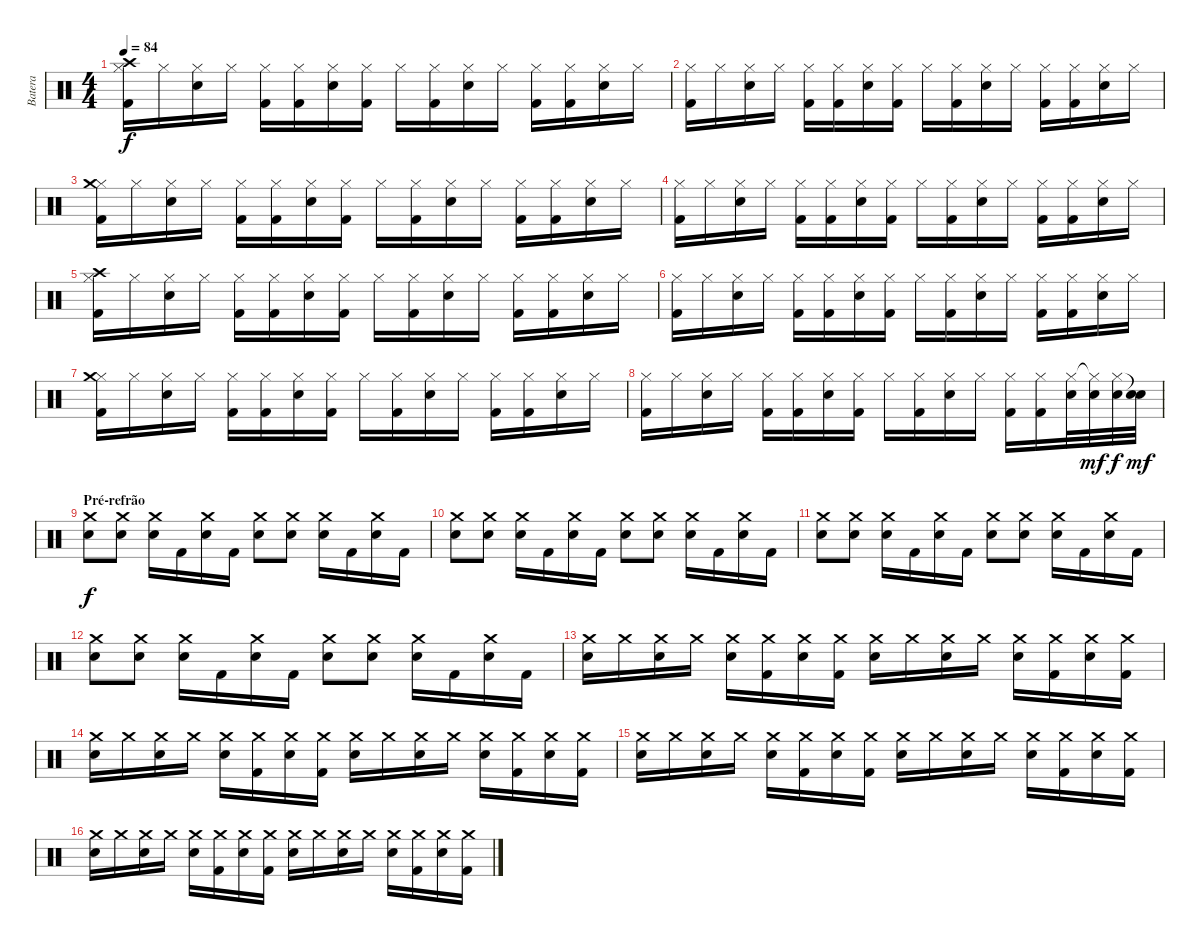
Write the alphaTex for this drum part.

\track ("Batera" "Batera") {instrument percussion}
\staff {score}
\articulation defaults
\ts (4 4)
\tempo 84
\clef neutral
\ks c
("Hi-Hat (closed)" "Crash high (hit)" "Kick (hit) 2").16{dy f} "Hi-Hat (closed)".16 ("Hi-Hat (closed)" "Snare (hit) 2").16 "Hi-Hat (closed)".16 ("Hi-Hat (closed)" "Kick (hit) 2").16 ("Hi-Hat (closed)" "Kick (hit) 2").16 ("Hi-Hat (closed)" "Snare (hit) 2").16 ("Hi-Hat (closed)" "Kick (hit) 2").16 "Hi-Hat (closed)".16 ("Hi-Hat (closed)" "Kick (hit) 2").16 ("Hi-Hat (closed)" "Snare (hit) 2").16 "Hi-Hat (closed)".16 ("Hi-Hat (closed)" "Kick (hit) 2").16 ("Hi-Hat (closed)" "Kick (hit) 2").16 ("Hi-Hat (closed)" "Snare (hit) 2").16 "Hi-Hat (closed)".16 |
("Hi-Hat (closed)" "Kick (hit) 2").16 "Hi-Hat (closed)".16 ("Hi-Hat (closed)" "Snare (hit) 2").16 "Hi-Hat (closed)".16 ("Hi-Hat (closed)" "Kick (hit) 2").16 ("Hi-Hat (closed)" "Kick (hit) 2").16 ("Hi-Hat (closed)" "Snare (hit) 2").16 ("Hi-Hat (closed)" "Kick (hit) 2").16 "Hi-Hat (closed)".16 ("Hi-Hat (closed)" "Kick (hit) 2").16 ("Hi-Hat (closed)" "Snare (hit) 2").16 "Hi-Hat (closed)".16 ("Hi-Hat (closed)" "Kick (hit) 2").16 ("Hi-Hat (closed)" "Kick (hit) 2").16 ("Hi-Hat (closed)" "Snare (hit) 2").16 "Hi-Hat (closed)".16 |
("Hi-Hat (closed)" "Crash medium (hit)" "Kick (hit) 2").16 "Hi-Hat (closed)".16 ("Hi-Hat (closed)" "Snare (hit) 2").16 "Hi-Hat (closed)".16 ("Hi-Hat (closed)" "Kick (hit) 2").16 ("Hi-Hat (closed)" "Kick (hit) 2").16 ("Hi-Hat (closed)" "Snare (hit) 2").16 ("Hi-Hat (closed)" "Kick (hit) 2").16 "Hi-Hat (closed)".16 ("Hi-Hat (closed)" "Kick (hit) 2").16 ("Hi-Hat (closed)" "Snare (hit) 2").16 "Hi-Hat (closed)".16 ("Hi-Hat (closed)" "Kick (hit) 2").16 ("Hi-Hat (closed)" "Kick (hit) 2").16 ("Hi-Hat (closed)" "Snare (hit) 2").16 "Hi-Hat (closed)".16 |
("Hi-Hat (closed)" "Kick (hit) 2").16 "Hi-Hat (closed)".16 ("Hi-Hat (closed)" "Snare (hit) 2").16 "Hi-Hat (closed)".16 ("Hi-Hat (closed)" "Kick (hit) 2").16 ("Hi-Hat (closed)" "Kick (hit) 2").16 ("Hi-Hat (closed)" "Snare (hit) 2").16 ("Hi-Hat (closed)" "Kick (hit) 2").16 "Hi-Hat (closed)".16 ("Hi-Hat (closed)" "Kick (hit) 2").16 ("Hi-Hat (closed)" "Snare (hit) 2").16 "Hi-Hat (closed)".16 ("Hi-Hat (closed)" "Kick (hit) 2").16 ("Hi-Hat (closed)" "Kick (hit) 2").16 ("Hi-Hat (closed)" "Snare (hit) 2").16 "Hi-Hat (closed)".16 |
("Hi-Hat (closed)" "Crash high (hit)" "Kick (hit) 2").16 "Hi-Hat (closed)".16 ("Hi-Hat (closed)" "Snare (hit) 2").16 "Hi-Hat (closed)".16 ("Hi-Hat (closed)" "Kick (hit) 2").16 ("Hi-Hat (closed)" "Kick (hit) 2").16 ("Hi-Hat (closed)" "Snare (hit) 2").16 ("Hi-Hat (closed)" "Kick (hit) 2").16 "Hi-Hat (closed)".16 ("Hi-Hat (closed)" "Kick (hit) 2").16 ("Hi-Hat (closed)" "Snare (hit) 2").16 "Hi-Hat (closed)".16 ("Hi-Hat (closed)" "Kick (hit) 2").16 ("Hi-Hat (closed)" "Kick (hit) 2").16 ("Hi-Hat (closed)" "Snare (hit) 2").16 "Hi-Hat (closed)".16 |
("Hi-Hat (closed)" "Kick (hit) 2").16 "Hi-Hat (closed)".16 ("Hi-Hat (closed)" "Snare (hit) 2").16 "Hi-Hat (closed)".16 ("Hi-Hat (closed)" "Kick (hit) 2").16 ("Hi-Hat (closed)" "Kick (hit) 2").16 ("Hi-Hat (closed)" "Snare (hit) 2").16 ("Hi-Hat (closed)" "Kick (hit) 2").16 "Hi-Hat (closed)".16 ("Hi-Hat (closed)" "Kick (hit) 2").16 ("Hi-Hat (closed)" "Snare (hit) 2").16 "Hi-Hat (closed)".16 ("Hi-Hat (closed)" "Kick (hit) 2").16 ("Hi-Hat (closed)" "Kick (hit) 2").16 ("Hi-Hat (closed)" "Snare (hit) 2").16 "Hi-Hat (closed)".16 |
("Hi-Hat (closed)" "Crash medium (hit)" "Kick (hit) 2").16 "Hi-Hat (closed)".16 ("Hi-Hat (closed)" "Snare (hit) 2").16 "Hi-Hat (closed)".16 ("Hi-Hat (closed)" "Kick (hit) 2").16 ("Hi-Hat (closed)" "Kick (hit) 2").16 ("Hi-Hat (closed)" "Snare (hit) 2").16 ("Hi-Hat (closed)" "Kick (hit) 2").16 "Hi-Hat (closed)".16 ("Hi-Hat (closed)" "Kick (hit) 2").16 ("Hi-Hat (closed)" "Snare (hit) 2").16 "Hi-Hat (closed)".16 ("Hi-Hat (closed)" "Kick (hit) 2").16 ("Hi-Hat (closed)" "Kick (hit) 2").16 ("Hi-Hat (closed)" "Snare (hit) 2").16 "Hi-Hat (closed)".16 |
("Hi-Hat (closed)" "Kick (hit) 2").16 "Hi-Hat (closed)".16 ("Hi-Hat (closed)" "Snare (hit) 2").16 "Hi-Hat (closed)".16 ("Hi-Hat (closed)" "Kick (hit) 2").16 ("Hi-Hat (closed)" "Kick (hit) 2").16 ("Hi-Hat (closed)" "Snare (hit) 2").16 ("Hi-Hat (closed)" "Kick (hit) 2").16 "Hi-Hat (closed)".16 ("Hi-Hat (closed)" "Kick (hit) 2").16 ("Hi-Hat (closed)" "Snare (hit) 2").16 "Hi-Hat (closed)".16 ("Hi-Hat (closed)" "Kick (hit) 2").16 ("Hi-Hat (closed)" "Kick (hit) 2").16 ("Hi-Hat (closed)" "Snare (hit) 2").32 ("Hi-Hat (closed)"{t} "Snare (hit) 2").32{dy mf} ("Hi-Hat (closed)" "Snare (hit) 2").32{dy f} ("Snare (hit)"{t} "Snare (hit) 2").32{dy mf} |
\section ("" "Pré-refrão")
("Snare (hit) 2" "Crash medium (hit)").8{dy f} ("Snare (hit) 2" "Crash medium (hit)").8 ("Snare (hit) 2" "Crash medium (hit)").16 "Kick (hit) 2".16 ("Snare (hit) 2" "Crash medium (hit)").16 "Kick (hit) 2".16 ("Snare (hit) 2" "Crash medium (hit)").8 ("Snare (hit) 2" "Crash medium (hit)").8 ("Snare (hit) 2" "Crash medium (hit)").16 "Kick (hit) 2".16 ("Snare (hit) 2" "Crash medium (hit)").16 "Kick (hit) 2".16 |
("Snare (hit) 2" "Crash medium (hit)").8 ("Snare (hit) 2" "Crash medium (hit)").8 ("Snare (hit) 2" "Crash medium (hit)").16 "Kick (hit) 2".16 ("Snare (hit) 2" "Crash medium (hit)").16 "Kick (hit) 2".16 ("Snare (hit) 2" "Crash medium (hit)").8 ("Snare (hit) 2" "Crash medium (hit)").8 ("Snare (hit) 2" "Crash medium (hit)").16 "Kick (hit) 2".16 ("Snare (hit) 2" "Crash medium (hit)").16 "Kick (hit) 2".16 |
("Snare (hit) 2" "Crash medium (hit)").8 ("Snare (hit) 2" "Crash medium (hit)").8 ("Snare (hit) 2" "Crash medium (hit)").16 "Kick (hit) 2".16 ("Snare (hit) 2" "Crash medium (hit)").16 "Kick (hit) 2".16 ("Snare (hit) 2" "Crash medium (hit)").8 ("Snare (hit) 2" "Crash medium (hit)").8 ("Snare (hit) 2" "Crash medium (hit)").16 "Kick (hit) 2".16 ("Snare (hit) 2" "Crash medium (hit)").16 "Kick (hit) 2".16 |
("Snare (hit) 2" "Crash medium (hit)").8 ("Snare (hit) 2" "Crash medium (hit)").8 ("Snare (hit) 2" "Crash medium (hit)").16 "Kick (hit) 2".16 ("Snare (hit) 2" "Crash medium (hit)").16 "Kick (hit) 2".16 ("Snare (hit) 2" "Crash medium (hit)").8 ("Snare (hit) 2" "Crash medium (hit)").8 ("Snare (hit) 2" "Crash medium (hit)").16 "Kick (hit) 2".16 ("Snare (hit) 2" "Crash medium (hit)").16 "Kick (hit) 2".16 |
("Snare (hit) 2" "Crash medium (hit)").16 "Crash medium (hit)".16 ("Snare (hit) 2" "Crash medium (hit)").16 "Crash medium (hit)".16 ("Snare (hit) 2" "Crash medium (hit)").16 ("Crash medium (hit)" "Kick (hit) 2").16 ("Snare (hit) 2" "Crash medium (hit)").16 ("Crash medium (hit)" "Kick (hit) 2").16 ("Snare (hit) 2" "Crash medium (hit)").16 "Crash medium (hit)".16 ("Snare (hit) 2" "Crash medium (hit)").16 "Crash medium (hit)".16 ("Snare (hit) 2" "Crash medium (hit)").16 ("Crash medium (hit)" "Kick (hit) 2").16 ("Snare (hit) 2" "Crash medium (hit)").16 ("Crash medium (hit)" "Kick (hit) 2").16 |
("Snare (hit) 2" "Crash medium (hit)").16 "Crash medium (hit)".16 ("Snare (hit) 2" "Crash medium (hit)").16 "Crash medium (hit)".16 ("Snare (hit) 2" "Crash medium (hit)").16 ("Crash medium (hit)" "Kick (hit) 2").16 ("Snare (hit) 2" "Crash medium (hit)").16 ("Crash medium (hit)" "Kick (hit) 2").16 ("Snare (hit) 2" "Crash medium (hit)").16 "Crash medium (hit)".16 ("Snare (hit) 2" "Crash medium (hit)").16 "Crash medium (hit)".16 ("Snare (hit) 2" "Crash medium (hit)").16 ("Crash medium (hit)" "Kick (hit) 2").16 ("Snare (hit) 2" "Crash medium (hit)").16 ("Crash medium (hit)" "Kick (hit) 2").16 |
("Snare (hit) 2" "Crash medium (hit)").16 "Crash medium (hit)".16 ("Snare (hit) 2" "Crash medium (hit)").16 "Crash medium (hit)".16 ("Snare (hit) 2" "Crash medium (hit)").16 ("Crash medium (hit)" "Kick (hit) 2").16 ("Snare (hit) 2" "Crash medium (hit)").16 ("Crash medium (hit)" "Kick (hit) 2").16 ("Snare (hit) 2" "Crash medium (hit)").16 "Crash medium (hit)".16 ("Snare (hit) 2" "Crash medium (hit)").16 "Crash medium (hit)".16 ("Snare (hit) 2" "Crash medium (hit)").16 ("Crash medium (hit)" "Kick (hit) 2").16 ("Snare (hit) 2" "Crash medium (hit)").16 ("Crash medium (hit)" "Kick (hit) 2").16 |
("Snare (hit) 2" "Crash medium (hit)").16 "Crash medium (hit)".16 ("Snare (hit) 2" "Crash medium (hit)").16 "Crash medium (hit)".16 ("Snare (hit) 2" "Crash medium (hit)").16 ("Crash medium (hit)" "Kick (hit) 2").16 ("Snare (hit) 2" "Crash medium (hit)").16 ("Crash medium (hit)" "Kick (hit) 2").16 ("Snare (hit) 2" "Crash medium (hit)").16 "Crash medium (hit)".16 ("Snare (hit) 2" "Crash medium (hit)").16 "Crash medium (hit)".16 ("Snare (hit) 2" "Crash medium (hit)").16 ("Crash medium (hit)" "Kick (hit) 2").16 ("Snare (hit) 2" "Crash medium (hit)").16 ("Crash medium (hit)" "Kick (hit) 2").16
